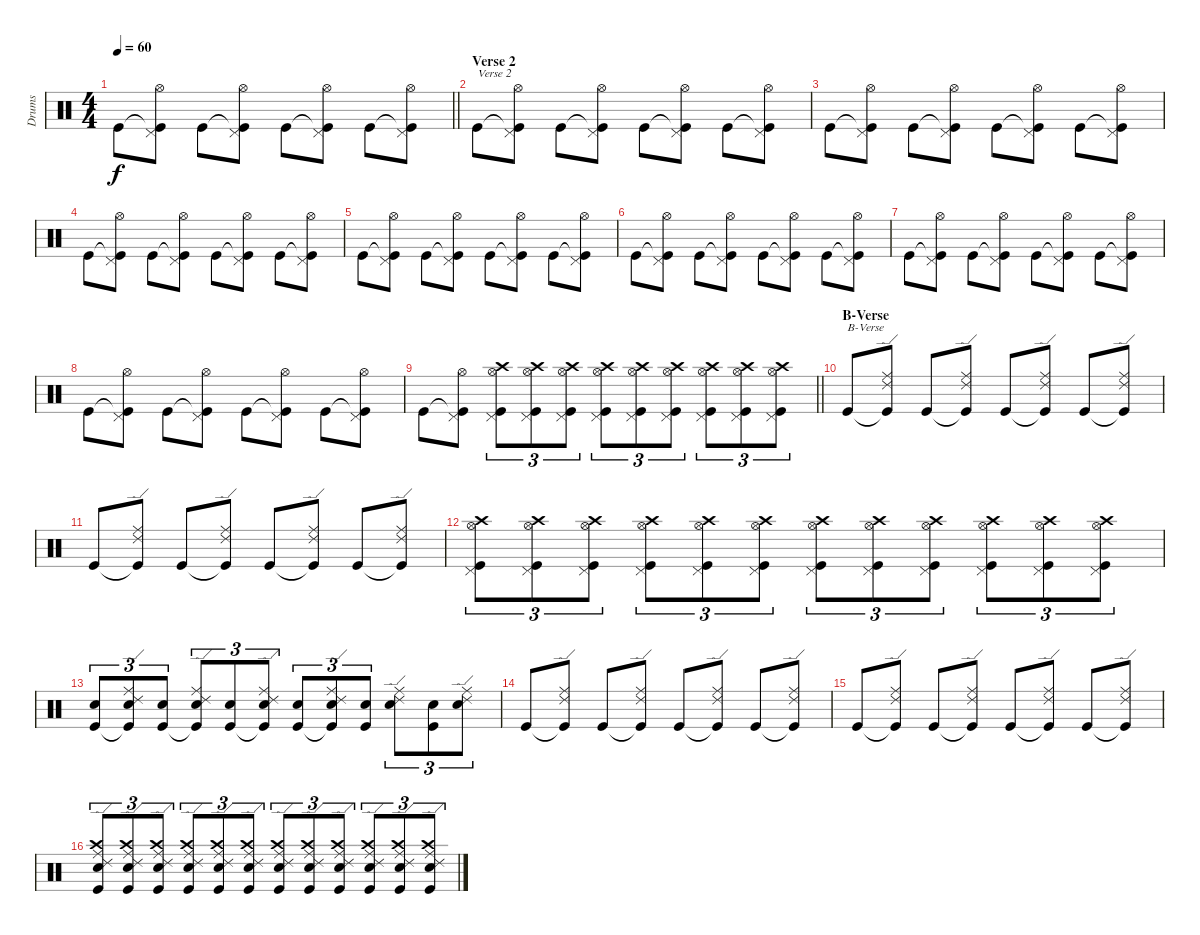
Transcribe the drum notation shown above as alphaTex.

\track ("Drums" "Drums") {instrument percussion}
\staff {score}
\articulation defaults
\ts (4 4)
\tempo 60
\clef neutral
\barLineRight lightlight
\ks c "Kick (hit)".8{dy f}
("Kick (hit)"{t} "Pedal Hi-Hat (hit)" "Hi-Hat (open)").8 "Kick (hit)".8 ("Kick (hit)"{t} "Pedal Hi-Hat (hit)" "Hi-Hat (open)").8 "Kick (hit)".8 ("Kick (hit)"{t} "Pedal Hi-Hat (hit)" "Hi-Hat (open)").8 "Kick (hit)".8 ("Kick (hit)"{t} "Pedal Hi-Hat (hit)" "Hi-Hat (open)").8 |
\section ("" "Verse 2")
"Kick (hit)".8{txt "Verse 2"} ("Kick (hit)"{t} "Pedal Hi-Hat (hit)" "Hi-Hat (open)").8 "Kick (hit)".8 ("Kick (hit)"{t} "Pedal Hi-Hat (hit)" "Hi-Hat (open)").8 "Kick (hit)".8 ("Kick (hit)"{t} "Pedal Hi-Hat (hit)" "Hi-Hat (open)").8 "Kick (hit)".8 ("Kick (hit)"{t} "Pedal Hi-Hat (hit)" "Hi-Hat (open)").8 |
"Kick (hit)".8 ("Kick (hit)"{t} "Pedal Hi-Hat (hit)" "Hi-Hat (open)").8 "Kick (hit)".8 ("Kick (hit)"{t} "Pedal Hi-Hat (hit)" "Hi-Hat (open)").8 "Kick (hit)".8 ("Kick (hit)"{t} "Pedal Hi-Hat (hit)" "Hi-Hat (open)").8 "Kick (hit)".8 ("Kick (hit)"{t} "Pedal Hi-Hat (hit)" "Hi-Hat (open)").8 |
"Kick (hit)".8 ("Kick (hit)"{t} "Pedal Hi-Hat (hit)" "Hi-Hat (open)").8 "Kick (hit)".8 ("Kick (hit)"{t} "Pedal Hi-Hat (hit)" "Hi-Hat (open)").8 "Kick (hit)".8 ("Kick (hit)"{t} "Pedal Hi-Hat (hit)" "Hi-Hat (open)").8 "Kick (hit)".8 ("Kick (hit)"{t} "Pedal Hi-Hat (hit)" "Hi-Hat (open)").8 |
"Kick (hit)".8 ("Kick (hit)"{t} "Pedal Hi-Hat (hit)" "Hi-Hat (open)").8 "Kick (hit)".8 ("Kick (hit)"{t} "Pedal Hi-Hat (hit)" "Hi-Hat (open)").8 "Kick (hit)".8 ("Kick (hit)"{t} "Pedal Hi-Hat (hit)" "Hi-Hat (open)").8 "Kick (hit)".8 ("Kick (hit)"{t} "Pedal Hi-Hat (hit)" "Hi-Hat (open)").8 |
"Kick (hit)".8 ("Kick (hit)"{t} "Pedal Hi-Hat (hit)" "Hi-Hat (open)").8 "Kick (hit)".8 ("Kick (hit)"{t} "Pedal Hi-Hat (hit)" "Hi-Hat (open)").8 "Kick (hit)".8 ("Kick (hit)"{t} "Pedal Hi-Hat (hit)" "Hi-Hat (open)").8 "Kick (hit)".8 ("Kick (hit)"{t} "Pedal Hi-Hat (hit)" "Hi-Hat (open)").8 |
"Kick (hit)".8 ("Kick (hit)"{t} "Pedal Hi-Hat (hit)" "Hi-Hat (open)").8 "Kick (hit)".8 ("Kick (hit)"{t} "Pedal Hi-Hat (hit)" "Hi-Hat (open)").8 "Kick (hit)".8 ("Kick (hit)"{t} "Pedal Hi-Hat (hit)" "Hi-Hat (open)").8 "Kick (hit)".8 ("Kick (hit)"{t} "Pedal Hi-Hat (hit)" "Hi-Hat (open)").8 |
"Kick (hit)".8 ("Kick (hit)"{t} "Pedal Hi-Hat (hit)" "Hi-Hat (open)").8 "Kick (hit)".8 ("Kick (hit)"{t} "Pedal Hi-Hat (hit)" "Hi-Hat (open)").8 "Kick (hit)".8 ("Kick (hit)"{t} "Pedal Hi-Hat (hit)" "Hi-Hat (open)").8 "Kick (hit)".8 ("Kick (hit)"{t} "Pedal Hi-Hat (hit)" "Hi-Hat (open)").8 |
\barLineRight lightlight "Kick (hit)".8
("Kick (hit)"{t} "Pedal Hi-Hat (hit)" "Hi-Hat (open)").8 ("Kick (hit)" "Pedal Hi-Hat (hit)" "Hi-Hat (open)" "Crash high (hit)").8{tu (3 2)} ("Kick (hit)" "Pedal Hi-Hat (hit)" "Hi-Hat (open)" "Crash high (hit)").8{tu (3 2)} ("Kick (hit)" "Pedal Hi-Hat (hit)" "Hi-Hat (open)" "Crash high (hit)").8{tu (3 2)} ("Kick (hit)" "Pedal Hi-Hat (hit)" "Hi-Hat (open)" "Crash high (hit)").8{tu (3 2)} ("Kick (hit)" "Pedal Hi-Hat (hit)" "Hi-Hat (open)" "Crash high (hit)").8{tu (3 2)} ("Kick (hit)" "Pedal Hi-Hat (hit)" "Hi-Hat (open)" "Crash high (hit)").8{tu (3 2)} ("Kick (hit)" "Pedal Hi-Hat (hit)" "Hi-Hat (open)" "Crash high (hit)").8{tu (3 2)} ("Kick (hit)" "Pedal Hi-Hat (hit)" "Hi-Hat (open)" "Crash high (hit)").8{tu (3 2)} ("Kick (hit)" "Pedal Hi-Hat (hit)" "Hi-Hat (open)" "Crash high (hit)").8{tu (3 2)} |
\section ("" "B-Verse")
"Kick (hit)".8{txt "B-Verse"} ("Kick (hit)"{t} "Ride (middle)" "Ride (edge) 2").8 "Kick (hit)".8 ("Kick (hit)"{t} "Ride (middle)" "Ride (edge) 2").8 "Kick (hit)".8 ("Kick (hit)"{t} "Ride (middle)" "Ride (edge) 2").8 "Kick (hit)".8 ("Kick (hit)"{t} "Ride (middle)" "Ride (edge) 2").8 |
"Kick (hit)".8 ("Kick (hit)"{t} "Ride (middle)" "Ride (edge) 2").8 "Kick (hit)".8 ("Kick (hit)"{t} "Ride (middle)" "Ride (edge) 2").8 "Kick (hit)".8 ("Kick (hit)"{t} "Ride (middle)" "Ride (edge) 2").8 "Kick (hit)".8 ("Kick (hit)"{t} "Ride (middle)" "Ride (edge) 2").8 |
("Kick (hit)" "Pedal Hi-Hat (hit)" "Hi-Hat (open)" "Crash high (hit)").8{tu (3 2)} ("Kick (hit)" "Pedal Hi-Hat (hit)" "Hi-Hat (open)" "Crash high (hit)").8{tu (3 2)} ("Kick (hit)" "Pedal Hi-Hat (hit)" "Hi-Hat (open)" "Crash high (hit)").8{tu (3 2)} ("Kick (hit)" "Pedal Hi-Hat (hit)" "Hi-Hat (open)" "Crash high (hit)").8{tu (3 2)} ("Kick (hit)" "Pedal Hi-Hat (hit)" "Hi-Hat (open)" "Crash high (hit)").8{tu (3 2)} ("Kick (hit)" "Pedal Hi-Hat (hit)" "Hi-Hat (open)" "Crash high (hit)").8{tu (3 2)} ("Kick (hit)" "Pedal Hi-Hat (hit)" "Hi-Hat (open)" "Crash high (hit)").8{tu (3 2)} ("Kick (hit)" "Pedal Hi-Hat (hit)" "Hi-Hat (open)" "Crash high (hit)").8{tu (3 2)} ("Kick (hit)" "Pedal Hi-Hat (hit)" "Hi-Hat (open)" "Crash high (hit)").8{tu (3 2)} ("Kick (hit)" "Pedal Hi-Hat (hit)" "Hi-Hat (open)" "Crash high (hit)").8{tu (3 2)} ("Kick (hit)" "Pedal Hi-Hat (hit)" "Hi-Hat (open)" "Crash high (hit)").8{tu (3 2)} ("Kick (hit)" "Pedal Hi-Hat (hit)" "Hi-Hat (open)" "Crash high (hit)").8{tu (3 2)} |
("Kick (hit)" "Electric Snare (hit)").8{tu (3 2)} ("Kick (hit)"{t} "Electric Snare (hit)" "Ride (middle)" "Ride (edge) 2").8{tu (3 2)} ("Kick (hit)" "Electric Snare (hit)").8{tu (3 2)} ("Kick (hit)"{t} "Electric Snare (hit)" "Ride (middle)" "Ride (edge) 2").8{tu (3 2)} ("Kick (hit)" "Electric Snare (hit)").8{tu (3 2)} ("Kick (hit)"{t} "Electric Snare (hit)" "Ride (middle)" "Ride (edge) 2").8{tu (3 2)} ("Kick (hit)" "Electric Snare (hit)").8{tu (3 2)} ("Kick (hit)"{t} "Electric Snare (hit)" "Ride (middle)" "Ride (edge) 2").8{tu (3 2)} ("Kick (hit)" "Electric Snare (hit)").8{tu (3 2)} ("Electric Snare (hit)" "Ride (middle)" "Ride (edge) 2").8{tu (3 2)} ("Kick (hit)" "Electric Snare (hit)").8{tu (3 2)} ("Electric Snare (hit)" "Ride (middle)" "Ride (edge) 2").8{tu (3 2)} |
"Kick (hit)".8 ("Kick (hit)"{t} "Ride (middle)" "Ride (edge) 2").8 "Kick (hit)".8 ("Kick (hit)"{t} "Ride (middle)" "Ride (edge) 2").8 "Kick (hit)".8 ("Kick (hit)"{t} "Ride (middle)" "Ride (edge) 2").8 "Kick (hit)".8 ("Kick (hit)"{t} "Ride (middle)" "Ride (edge) 2").8 |
"Kick (hit)".8 ("Kick (hit)"{t} "Ride (middle)" "Ride (edge) 2").8 "Kick (hit)".8 ("Kick (hit)"{t} "Ride (middle)" "Ride (edge) 2").8 "Kick (hit)".8 ("Kick (hit)"{t} "Ride (middle)" "Ride (edge) 2").8 "Kick (hit)".8 ("Kick (hit)"{t} "Ride (middle)" "Ride (edge) 2").8 |
("Kick (hit)" "Electric Snare (hit)" "Ride (middle)" "Ride (edge) 2" "Crash high (hit)").8{tu (3 2)} ("Kick (hit)" "Electric Snare (hit)" "Ride (middle)" "Ride (edge) 2" "Crash high (hit)").8{tu (3 2)} ("Kick (hit)" "Electric Snare (hit)" "Ride (middle)" "Ride (edge) 2" "Crash high (hit)").8{tu (3 2)} ("Kick (hit)" "Electric Snare (hit)" "Ride (middle)" "Ride (edge) 2" "Crash high (hit)").8{tu (3 2)} ("Kick (hit)" "Electric Snare (hit)" "Ride (middle)" "Ride (edge) 2" "Crash high (hit)").8{tu (3 2)} ("Kick (hit)" "Electric Snare (hit)" "Ride (middle)" "Ride (edge) 2" "Crash high (hit)").8{tu (3 2)} ("Kick (hit)" "Electric Snare (hit)" "Ride (middle)" "Ride (edge) 2" "Crash high (hit)").8{tu (3 2)} ("Kick (hit)" "Electric Snare (hit)" "Ride (middle)" "Ride (edge) 2" "Crash high (hit)").8{tu (3 2)} ("Kick (hit)" "Electric Snare (hit)" "Ride (middle)" "Ride (edge) 2" "Crash high (hit)").8{tu (3 2)} ("Kick (hit)" "Electric Snare (hit)" "Ride (middle)" "Ride (edge) 2" "Crash high (hit)").8{tu (3 2)} ("Kick (hit)" "Electric Snare (hit)" "Ride (middle)" "Ride (edge) 2" "Crash high (hit)").8{tu (3 2)} ("Kick (hit)" "Electric Snare (hit)" "Ride (middle)" "Ride (edge) 2" "Crash high (hit)").8{tu (3 2)}
